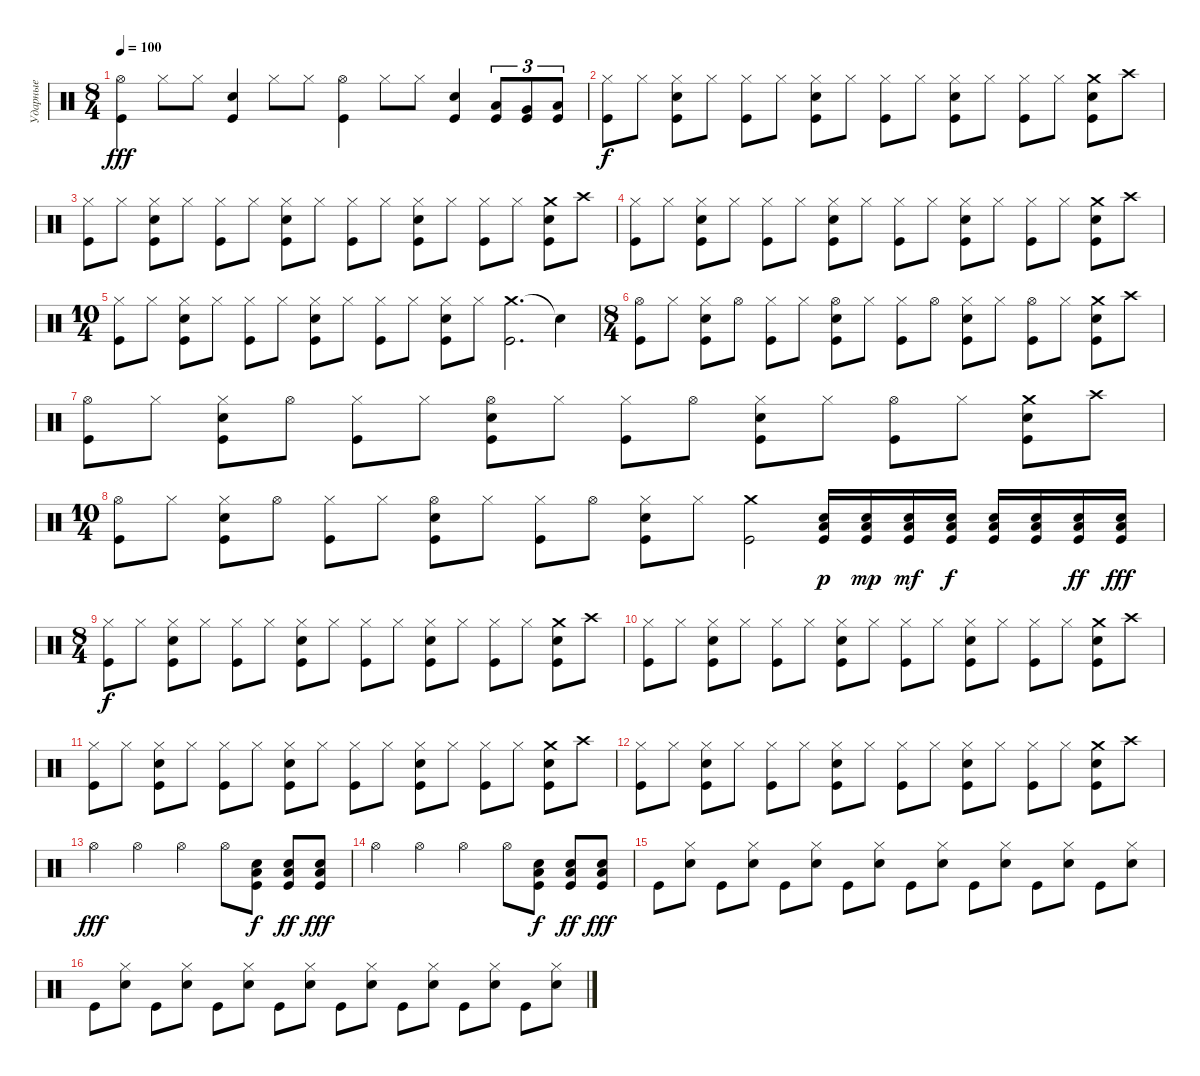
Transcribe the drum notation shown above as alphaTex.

\track ("Ударные" "Ударные") {instrument percussion}
\staff {score}
\articulation defaults
\ts (8 4)
\tempo 100
\clef neutral
\ks c
("Kick (hit)" "Hi-Hat (open)").4{dy fff} "Hi-Hat (closed)".8 "Hi-Hat (closed)".8 ("Kick (hit)" "Snare (hit) 2").4 "Hi-Hat (closed)".8 "Hi-Hat (closed)".8 ("Kick (hit)" "Hi-Hat (open)").4 "Hi-Hat (closed)".8 "Hi-Hat (closed)".8 ("Kick (hit)" "Snare (hit) 2").4 ("Low Tom (hit)" "Kick (hit)").8{tu (3 2)} ("Very Low Tom (hit)" "Kick (hit)").8{tu (3 2)} ("Low Floor Tom (hit)" "Kick (hit)").8{tu (3 2)} |
("Hi-Hat (closed)" "Kick (hit)").8{dy f} "Hi-Hat (closed)".8 ("Hi-Hat (closed)" "Kick (hit)" "Snare (hit) 2").8 "Hi-Hat (closed)".8 ("Hi-Hat (closed)" "Kick (hit)").8 "Hi-Hat (closed)".8 ("Hi-Hat (closed)" "Kick (hit)" "Snare (hit) 2").8 "Hi-Hat (closed)".8 ("Hi-Hat (closed)" "Kick (hit)").8 "Hi-Hat (closed)".8 ("Hi-Hat (closed)" "Kick (hit)" "Snare (hit) 2").8 "Hi-Hat (closed)".8 ("Hi-Hat (closed)" "Kick (hit)").8 "Hi-Hat (closed)".8 ("Crash medium (hit)" "Kick (hit)" "Snare (hit) 2").8 "Crash high (hit)".8 |
("Hi-Hat (closed)" "Kick (hit)").8 "Hi-Hat (closed)".8 ("Hi-Hat (closed)" "Kick (hit)" "Snare (hit) 2").8 "Hi-Hat (closed)".8 ("Hi-Hat (closed)" "Kick (hit)").8 "Hi-Hat (closed)".8 ("Hi-Hat (closed)" "Kick (hit)" "Snare (hit) 2").8 "Hi-Hat (closed)".8 ("Hi-Hat (closed)" "Kick (hit)").8 "Hi-Hat (closed)".8 ("Hi-Hat (closed)" "Kick (hit)" "Snare (hit) 2").8 "Hi-Hat (closed)".8 ("Hi-Hat (closed)" "Kick (hit)").8 "Hi-Hat (closed)".8 ("Crash medium (hit)" "Kick (hit)" "Snare (hit) 2").8 "Crash high (hit)".8 |
("Hi-Hat (closed)" "Kick (hit)").8 "Hi-Hat (closed)".8 ("Hi-Hat (closed)" "Kick (hit)" "Snare (hit) 2").8 "Hi-Hat (closed)".8 ("Hi-Hat (closed)" "Kick (hit)").8 "Hi-Hat (closed)".8 ("Hi-Hat (closed)" "Kick (hit)" "Snare (hit) 2").8 "Hi-Hat (closed)".8 ("Hi-Hat (closed)" "Kick (hit)").8 "Hi-Hat (closed)".8 ("Hi-Hat (closed)" "Kick (hit)" "Snare (hit) 2").8 "Hi-Hat (closed)".8 ("Hi-Hat (closed)" "Kick (hit)").8 "Hi-Hat (closed)".8 ("Crash medium (hit)" "Kick (hit)" "Snare (hit) 2").8 "Crash high (hit)".8 |
\ts (10 4)
("Hi-Hat (closed)" "Kick (hit)").8 "Hi-Hat (closed)".8 ("Hi-Hat (closed)" "Kick (hit)" "Snare (hit) 2").8 "Hi-Hat (closed)".8 ("Hi-Hat (closed)" "Kick (hit)").8 "Hi-Hat (closed)".8 ("Hi-Hat (closed)" "Kick (hit)" "Snare (hit) 2").8 "Hi-Hat (closed)".8 ("Hi-Hat (closed)" "Kick (hit)").8 "Hi-Hat (closed)".8 ("Hi-Hat (closed)" "Kick (hit)" "Snare (hit) 2").8 "Hi-Hat (closed)".8 ("Crash medium (hit)" "Kick (hit)").2{d} "Snare (hit)"{t}.4 |
\ts (8 4)
("Hi-Hat (open)" "Kick (hit)").8 "Hi-Hat (closed)".8 ("Hi-Hat (closed)" "Kick (hit)" "Snare (hit) 2").8 "Hi-Hat (open)".8 ("Hi-Hat (closed)" "Kick (hit)").8 "Hi-Hat (closed)".8 ("Hi-Hat (open)" "Kick (hit)" "Snare (hit) 2").8 "Hi-Hat (closed)".8 ("Hi-Hat (closed)" "Kick (hit)").8 "Hi-Hat (open)".8 ("Hi-Hat (closed)" "Kick (hit)" "Snare (hit) 2").8 "Hi-Hat (closed)".8 ("Hi-Hat (open)" "Kick (hit)").8 "Hi-Hat (closed)".8 ("Crash medium (hit)" "Kick (hit)" "Snare (hit) 2").8 "Crash high (hit)".8 |
("Hi-Hat (open)" "Kick (hit)").8 "Hi-Hat (closed)".8 ("Hi-Hat (closed)" "Kick (hit)" "Snare (hit) 2").8 "Hi-Hat (open)".8 ("Hi-Hat (closed)" "Kick (hit)").8 "Hi-Hat (closed)".8 ("Hi-Hat (open)" "Kick (hit)" "Snare (hit) 2").8 "Hi-Hat (closed)".8 ("Hi-Hat (closed)" "Kick (hit)").8 "Hi-Hat (open)".8 ("Hi-Hat (closed)" "Kick (hit)" "Snare (hit) 2").8 "Hi-Hat (closed)".8 ("Hi-Hat (open)" "Kick (hit)").8 "Hi-Hat (closed)".8 ("Crash medium (hit)" "Kick (hit)" "Snare (hit) 2").8 "Crash high (hit)".8 |
\ts (10 4)
("Hi-Hat (open)" "Kick (hit)").8 "Hi-Hat (closed)".8 ("Hi-Hat (closed)" "Kick (hit)" "Snare (hit) 2").8 "Hi-Hat (open)".8 ("Hi-Hat (closed)" "Kick (hit)").8 "Hi-Hat (closed)".8 ("Hi-Hat (open)" "Kick (hit)" "Snare (hit) 2").8 "Hi-Hat (closed)".8 ("Hi-Hat (closed)" "Kick (hit)").8 "Hi-Hat (open)".8 ("Hi-Hat (closed)" "Kick (hit)" "Snare (hit) 2").8 "Hi-Hat (closed)".8 ("Crash medium (hit)" "Kick (hit)").2 ("Kick (hit)" "Low Floor Tom (hit)" "Snare (hit) 2").16{dy p} ("Kick (hit)" "Low Floor Tom (hit)" "Snare (hit) 2").16{dy mp} ("Kick (hit)" "Low Floor Tom (hit)" "Snare (hit) 2").16{dy mf} ("Kick (hit)" "Low Floor Tom (hit)" "Snare (hit) 2").16{dy f} ("Kick (hit)" "Low Floor Tom (hit)" "Snare (hit) 2").16 ("Kick (hit)" "Low Floor Tom (hit)" "Snare (hit) 2").16 ("Kick (hit)" "Low Floor Tom (hit)" "Snare (hit) 2").16{dy ff} ("Kick (hit)" "Low Floor Tom (hit)" "Snare (hit) 2").16{dy fff} |
\ts (8 4)
("Hi-Hat (closed)" "Kick (hit)").8{dy f} "Hi-Hat (closed)".8 ("Hi-Hat (closed)" "Kick (hit)" "Snare (hit) 2").8 "Hi-Hat (closed)".8 ("Hi-Hat (closed)" "Kick (hit)").8 "Hi-Hat (closed)".8 ("Hi-Hat (closed)" "Kick (hit)" "Snare (hit) 2").8 "Hi-Hat (closed)".8 ("Hi-Hat (closed)" "Kick (hit)").8 "Hi-Hat (closed)".8 ("Hi-Hat (closed)" "Kick (hit)" "Snare (hit) 2").8 "Hi-Hat (closed)".8 ("Hi-Hat (closed)" "Kick (hit)").8 "Hi-Hat (closed)".8 ("Crash medium (hit)" "Kick (hit)" "Snare (hit) 2").8 "Crash high (hit)".8 |
("Hi-Hat (closed)" "Kick (hit)").8 "Hi-Hat (closed)".8 ("Hi-Hat (closed)" "Kick (hit)" "Snare (hit) 2").8 "Hi-Hat (closed)".8 ("Hi-Hat (closed)" "Kick (hit)").8 "Hi-Hat (closed)".8 ("Hi-Hat (closed)" "Kick (hit)" "Snare (hit) 2").8 "Hi-Hat (closed)".8 ("Hi-Hat (closed)" "Kick (hit)").8 "Hi-Hat (closed)".8 ("Hi-Hat (closed)" "Kick (hit)" "Snare (hit) 2").8 "Hi-Hat (closed)".8 ("Hi-Hat (closed)" "Kick (hit)").8 "Hi-Hat (closed)".8 ("Crash medium (hit)" "Kick (hit)" "Snare (hit) 2").8 "Crash high (hit)".8 |
("Hi-Hat (closed)" "Kick (hit)").8 "Hi-Hat (closed)".8 ("Hi-Hat (closed)" "Kick (hit)" "Snare (hit) 2").8 "Hi-Hat (closed)".8 ("Hi-Hat (closed)" "Kick (hit)").8 "Hi-Hat (closed)".8 ("Hi-Hat (closed)" "Kick (hit)" "Snare (hit) 2").8 "Hi-Hat (closed)".8 ("Hi-Hat (closed)" "Kick (hit)").8 "Hi-Hat (closed)".8 ("Hi-Hat (closed)" "Kick (hit)" "Snare (hit) 2").8 "Hi-Hat (closed)".8 ("Hi-Hat (closed)" "Kick (hit)").8 "Hi-Hat (closed)".8 ("Crash medium (hit)" "Kick (hit)" "Snare (hit) 2").8 "Crash high (hit)".8 |
("Hi-Hat (closed)" "Kick (hit)").8 "Hi-Hat (closed)".8 ("Hi-Hat (closed)" "Kick (hit)" "Snare (hit) 2").8 "Hi-Hat (closed)".8 ("Hi-Hat (closed)" "Kick (hit)").8 "Hi-Hat (closed)".8 ("Hi-Hat (closed)" "Kick (hit)" "Snare (hit) 2").8 "Hi-Hat (closed)".8 ("Hi-Hat (closed)" "Kick (hit)").8 "Hi-Hat (closed)".8 ("Hi-Hat (closed)" "Kick (hit)" "Snare (hit) 2").8 "Hi-Hat (closed)".8 ("Hi-Hat (closed)" "Kick (hit)").8 "Hi-Hat (closed)".8 ("Crash medium (hit)" "Kick (hit)" "Snare (hit) 2").8 "Crash high (hit)".8 |
"Hi-Hat (open)".2{dy fff} "Hi-Hat (open)".2 "Hi-Hat (open)".2 "Hi-Hat (open)".8 ("Kick (hit)" "Low Floor Tom (hit)" "Snare (hit) 2").8{dy f} ("Kick (hit)" "Low Floor Tom (hit)" "Snare (hit) 2").8{dy ff} ("Kick (hit)" "Low Floor Tom (hit)" "Snare (hit) 2").8{dy fff} |
"Hi-Hat (open)".2 "Hi-Hat (open)".2 "Hi-Hat (open)".2 "Hi-Hat (open)".8 ("Kick (hit)" "Low Floor Tom (hit)" "Snare (hit) 2").8{dy f} ("Kick (hit)" "Low Floor Tom (hit)" "Snare (hit) 2").8{dy ff} ("Kick (hit)" "Low Floor Tom (hit)" "Snare (hit) 2").8{dy fff} |
"Kick (hit)".8 ("Hi-Hat (closed)" "Snare (hit) 2").8 "Kick (hit)".8 ("Hi-Hat (closed)" "Snare (hit) 2").8 "Kick (hit)".8 ("Hi-Hat (closed)" "Snare (hit) 2").8 "Kick (hit)".8 ("Hi-Hat (closed)" "Snare (hit) 2").8 "Kick (hit)".8 ("Hi-Hat (closed)" "Snare (hit) 2").8 "Kick (hit)".8 ("Hi-Hat (closed)" "Snare (hit) 2").8 "Kick (hit)".8 ("Hi-Hat (closed)" "Snare (hit) 2").8 "Kick (hit)".8 ("Hi-Hat (closed)" "Snare (hit) 2").8 |
"Kick (hit)".8 ("Hi-Hat (closed)" "Snare (hit) 2").8 "Kick (hit)".8 ("Hi-Hat (closed)" "Snare (hit) 2").8 "Kick (hit)".8 ("Hi-Hat (closed)" "Snare (hit) 2").8 "Kick (hit)".8 ("Hi-Hat (closed)" "Snare (hit) 2").8 "Kick (hit)".8 ("Hi-Hat (closed)" "Snare (hit) 2").8 "Kick (hit)".8 ("Hi-Hat (closed)" "Snare (hit) 2").8 "Kick (hit)".8 ("Hi-Hat (closed)" "Snare (hit) 2").8 "Kick (hit)".8 ("Hi-Hat (closed)" "Snare (hit) 2").8
